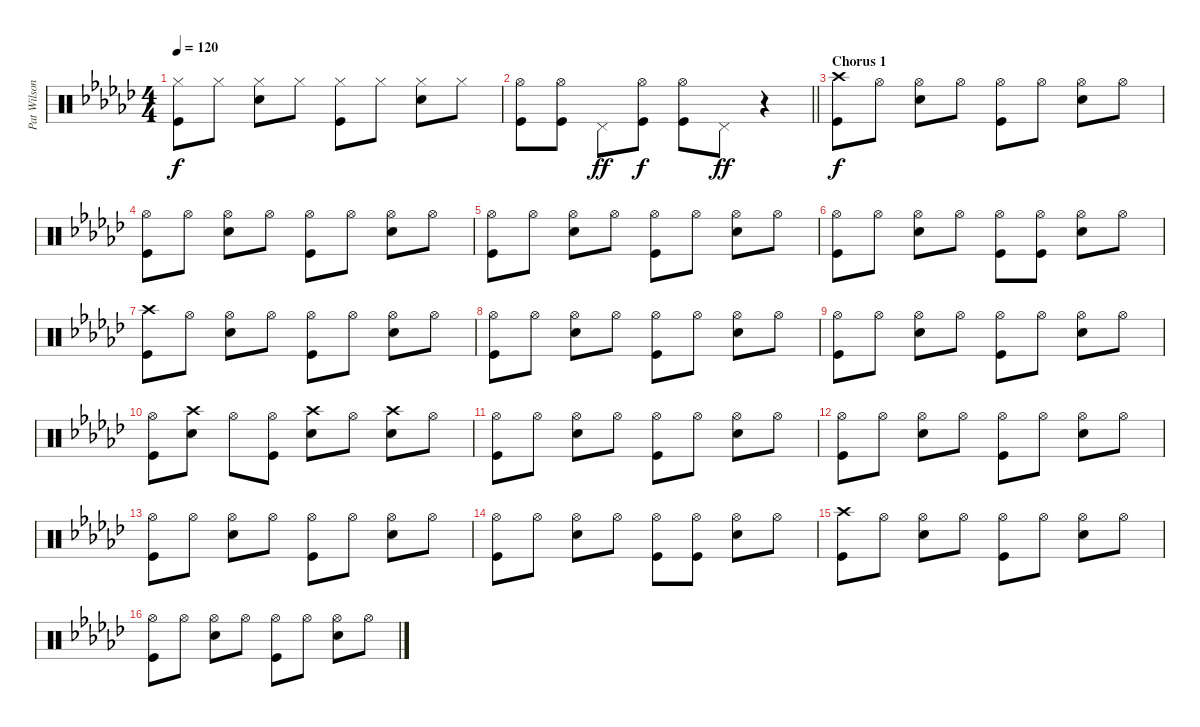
\track ("Pat Wilson" "Pat Wilson") {instrument percussion}
\staff {score}
\articulation defaults
\ts (4 4)
\tempo 120
\clef neutral
\ks gb
("Hi-Hat (closed)" "Kick (hit)").8{dy f} "Hi-Hat (closed)".8 ("Hi-Hat (closed)" "Snare (hit) 2").8 "Hi-Hat (closed)".8 ("Hi-Hat (closed)" "Kick (hit)").8 "Hi-Hat (closed)".8 ("Hi-Hat (closed)" "Snare (hit) 2").8 "Hi-Hat (closed)".8 |
\barLineRight lightlight
("Hi-Hat (open)" "Kick (hit)").8 ("Hi-Hat (open)" "Kick (hit)").8 "Pedal Hi-Hat (hit)".8{dy ff} ("Hi-Hat (open)" "Kick (hit)").8{dy f} ("Hi-Hat (open)" "Kick (hit)").8 "Pedal Hi-Hat (hit)".8{dy ff} r.4 |
\section ("" "Chorus 1")
("Crash high (hit)" "Kick (hit)").8{dy f} "Hi-Hat (open)".8 ("Hi-Hat (open)" "Snare (hit) 2").8 "Hi-Hat (open)".8 ("Hi-Hat (open)" "Kick (hit)").8 "Hi-Hat (open)".8 ("Hi-Hat (open)" "Snare (hit) 2").8 "Hi-Hat (open)".8 |
("Hi-Hat (open)" "Kick (hit)").8 "Hi-Hat (open)".8 ("Hi-Hat (open)" "Snare (hit) 2").8 "Hi-Hat (open)".8 ("Hi-Hat (open)" "Kick (hit)").8 "Hi-Hat (open)".8 ("Hi-Hat (open)" "Snare (hit) 2").8 "Hi-Hat (open)".8 |
("Hi-Hat (open)" "Kick (hit)").8 "Hi-Hat (open)".8 ("Hi-Hat (open)" "Snare (hit) 2").8 "Hi-Hat (open)".8 ("Hi-Hat (open)" "Kick (hit)").8 "Hi-Hat (open)".8 ("Hi-Hat (open)" "Snare (hit) 2").8 "Hi-Hat (open)".8 |
("Hi-Hat (open)" "Kick (hit)").8 "Hi-Hat (open)".8 ("Hi-Hat (open)" "Snare (hit) 2").8 "Hi-Hat (open)".8 ("Hi-Hat (open)" "Kick (hit)").8 ("Hi-Hat (open)" "Kick (hit)").8 ("Hi-Hat (open)" "Snare (hit) 2").8 "Hi-Hat (open)".8 |
("Crash high (hit)" "Kick (hit)").8 "Hi-Hat (open)".8 ("Hi-Hat (open)" "Snare (hit) 2").8 "Hi-Hat (open)".8 ("Hi-Hat (open)" "Kick (hit)").8 "Hi-Hat (open)".8 ("Hi-Hat (open)" "Snare (hit) 2").8 "Hi-Hat (open)".8 |
("Hi-Hat (open)" "Kick (hit)").8 "Hi-Hat (open)".8 ("Hi-Hat (open)" "Snare (hit) 2").8 "Hi-Hat (open)".8 ("Hi-Hat (open)" "Kick (hit)").8 "Hi-Hat (open)".8 ("Hi-Hat (open)" "Snare (hit) 2").8 "Hi-Hat (open)".8 |
("Hi-Hat (open)" "Kick (hit)").8 "Hi-Hat (open)".8 ("Hi-Hat (open)" "Snare (hit) 2").8 "Hi-Hat (open)".8 ("Hi-Hat (open)" "Kick (hit)").8 "Hi-Hat (open)".8 ("Hi-Hat (open)" "Snare (hit) 2").8 "Hi-Hat (open)".8 |
("Hi-Hat (open)" "Kick (hit)").8 ("Crash high (hit)" "Snare (hit) 2").8 "Hi-Hat (open)".8 ("Hi-Hat (open)" "Kick (hit)").8 ("Crash high (hit)" "Snare (hit) 2").8 "Hi-Hat (open)".8 ("Crash high (hit)" "Snare (hit) 2").8 "Hi-Hat (open)".8 |
("Hi-Hat (open)" "Kick (hit)").8 "Hi-Hat (open)".8 ("Hi-Hat (open)" "Snare (hit) 2").8 "Hi-Hat (open)".8 ("Hi-Hat (open)" "Kick (hit)").8 "Hi-Hat (open)".8 ("Hi-Hat (open)" "Snare (hit) 2").8 "Hi-Hat (open)".8 |
("Hi-Hat (open)" "Kick (hit)").8 "Hi-Hat (open)".8 ("Hi-Hat (open)" "Snare (hit) 2").8 "Hi-Hat (open)".8 ("Hi-Hat (open)" "Kick (hit)").8 "Hi-Hat (open)".8 ("Hi-Hat (open)" "Snare (hit) 2").8 "Hi-Hat (open)".8 |
("Hi-Hat (open)" "Kick (hit)").8 "Hi-Hat (open)".8 ("Hi-Hat (open)" "Snare (hit) 2").8 "Hi-Hat (open)".8 ("Hi-Hat (open)" "Kick (hit)").8 "Hi-Hat (open)".8 ("Hi-Hat (open)" "Snare (hit) 2").8 "Hi-Hat (open)".8 |
("Hi-Hat (open)" "Kick (hit)").8 "Hi-Hat (open)".8 ("Hi-Hat (open)" "Snare (hit) 2").8 "Hi-Hat (open)".8 ("Hi-Hat (open)" "Kick (hit)").8 ("Hi-Hat (open)" "Kick (hit)").8 ("Hi-Hat (open)" "Snare (hit) 2").8 "Hi-Hat (open)".8 |
("Crash high (hit)" "Kick (hit)").8 "Hi-Hat (open)".8 ("Hi-Hat (open)" "Snare (hit) 2").8 "Hi-Hat (open)".8 ("Hi-Hat (open)" "Kick (hit)").8 "Hi-Hat (open)".8 ("Hi-Hat (open)" "Snare (hit) 2").8 "Hi-Hat (open)".8 |
("Hi-Hat (open)" "Kick (hit)").8 "Hi-Hat (open)".8 ("Hi-Hat (open)" "Snare (hit) 2").8 "Hi-Hat (open)".8 ("Hi-Hat (open)" "Kick (hit)").8 "Hi-Hat (open)".8 ("Hi-Hat (open)" "Snare (hit) 2").8 "Hi-Hat (open)".8
